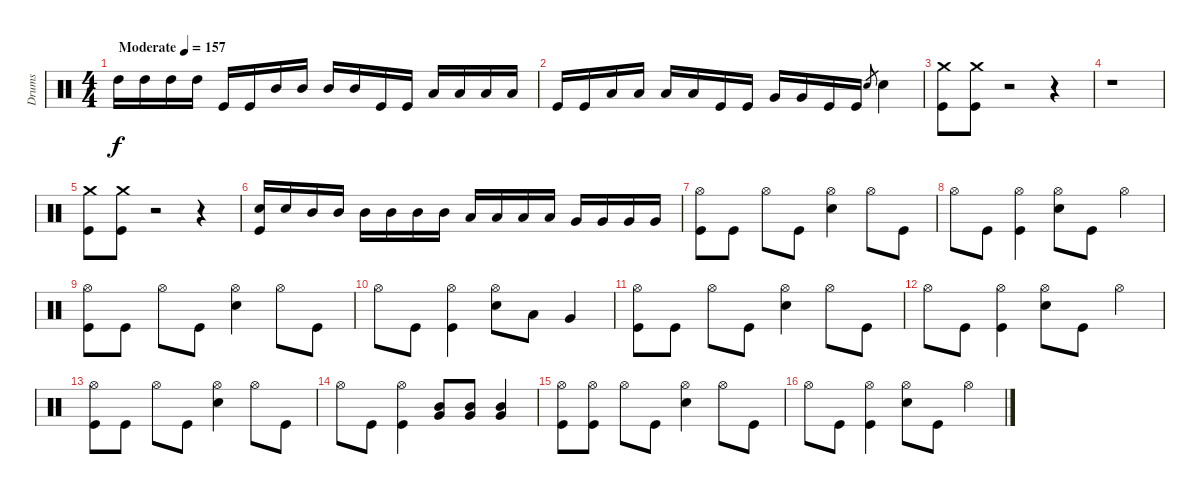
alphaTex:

\track ("Drums" "Drums") {instrument percussion}
\staff {score}
\articulation defaults
\ts (4 4)
\tempo (157 "Moderate")
\clef neutral
\ks c "High Tom (hit)".16{dy f} "High Tom (hit)".16 "High Tom (hit)".16 "High Tom (hit)".16 "Kick (hit)".16 "Kick (hit)".16 "Mid Tom (hit)".16 "Mid Tom (hit)".16 "Mid Tom (hit)".16 "Mid Tom (hit)".16 "Kick (hit)".16 "Kick (hit)".16 "Low Tom (hit)".16 "Low Tom (hit)".16 "Low Tom (hit)".16 "Low Tom (hit)".16
|
"Kick (hit)".16 "Kick (hit)".16 "Low Tom (hit)".16 "Low Tom (hit)".16 "Low Tom (hit)".16 "Low Tom (hit)".16 "Kick (hit)".16 "Kick (hit)".16 "Very Low Tom (hit)".16 "Very Low Tom (hit)".16 "Kick (hit)".16 "Kick (hit)".16 "Snare (hit) 2".8{gr} "Snare (hit) 2".4 |
("Crash medium (hit)" "Kick (hit)").8 ("Crash medium (hit)" "Kick (hit)").8 r.2 r.4 |
r.1 |
("Crash medium (hit)" "Kick (hit)").8 ("Crash medium (hit)" "Kick (hit)").8 r.2 r.4 |
("Snare (hit) 2" "Kick (hit)").16 "Snare (hit) 2".16 "Mid Tom (hit)".16 "Mid Tom (hit)".16 "Mid Tom (hit)".16 "Mid Tom (hit)".16 "Mid Tom (hit)".16 "Mid Tom (hit)".16 "Low Tom (hit)".16 "Low Tom (hit)".16 "Low Tom (hit)".16 "Low Tom (hit)".16 "Very Low Tom (hit)".16 "Very Low Tom (hit)".16 "Very Low Tom (hit)".16 "Very Low Tom (hit)".16 |
("Hi-Hat (open)" "Kick (hit)").8 "Kick (hit)".8 "Hi-Hat (open)".8 "Kick (hit)".8 ("Hi-Hat (open)" "Snare (hit) 2").4 "Hi-Hat (open)".8 "Kick (hit)".8 |
"Hi-Hat (open)".8 "Kick (hit)".8 ("Hi-Hat (open)" "Kick (hit)").4 ("Hi-Hat (open)" "Snare (hit) 2").8 "Kick (hit)".8 "Hi-Hat (open)".4 |
("Hi-Hat (open)" "Kick (hit)").8 "Kick (hit)".8 "Hi-Hat (open)".8 "Kick (hit)".8 ("Hi-Hat (open)" "Snare (hit) 2").4 "Hi-Hat (open)".8 "Kick (hit)".8 |
"Hi-Hat (open)".8 "Kick (hit)".8 ("Hi-Hat (open)" "Kick (hit)").4 ("Hi-Hat (open)" "Snare (hit) 2").8 "Low Tom (hit)".8 "Very Low Tom (hit)".4 |
("Hi-Hat (open)" "Kick (hit)").8 "Kick (hit)".8 "Hi-Hat (open)".8 "Kick (hit)".8 ("Hi-Hat (open)" "Snare (hit) 2").4 "Hi-Hat (open)".8 "Kick (hit)".8 |
"Hi-Hat (open)".8 "Kick (hit)".8 ("Hi-Hat (open)" "Kick (hit)").4 ("Hi-Hat (open)" "Snare (hit) 2").8 "Kick (hit)".8 "Hi-Hat (open)".4 |
("Hi-Hat (open)" "Kick (hit)").8 "Kick (hit)".8 "Hi-Hat (open)".8 "Kick (hit)".8 ("Hi-Hat (open)" "Snare (hit) 2").4 "Hi-Hat (open)".8 "Kick (hit)".8 |
"Hi-Hat (open)".8 "Kick (hit)".8 ("Hi-Hat (open)" "Kick (hit)").4 ("Very Low Tom (hit)" "Mid Tom (hit)").8 ("Very Low Tom (hit)" "Mid Tom (hit)").8 ("Very Low Tom (hit)" "Mid Tom (hit)").4 |
("Hi-Hat (open)" "Kick (hit)").8 ("Hi-Hat (open)" "Kick (hit)").8 "Hi-Hat (open)".8 "Kick (hit)".8 ("Hi-Hat (open)" "Snare (hit) 2").4 "Hi-Hat (open)".8 "Kick (hit)".8 |
"Hi-Hat (open)".8 "Kick (hit)".8 ("Hi-Hat (open)" "Kick (hit)").4 ("Hi-Hat (open)" "Snare (hit) 2").8 "Kick (hit)".8 "Hi-Hat (open)".4
